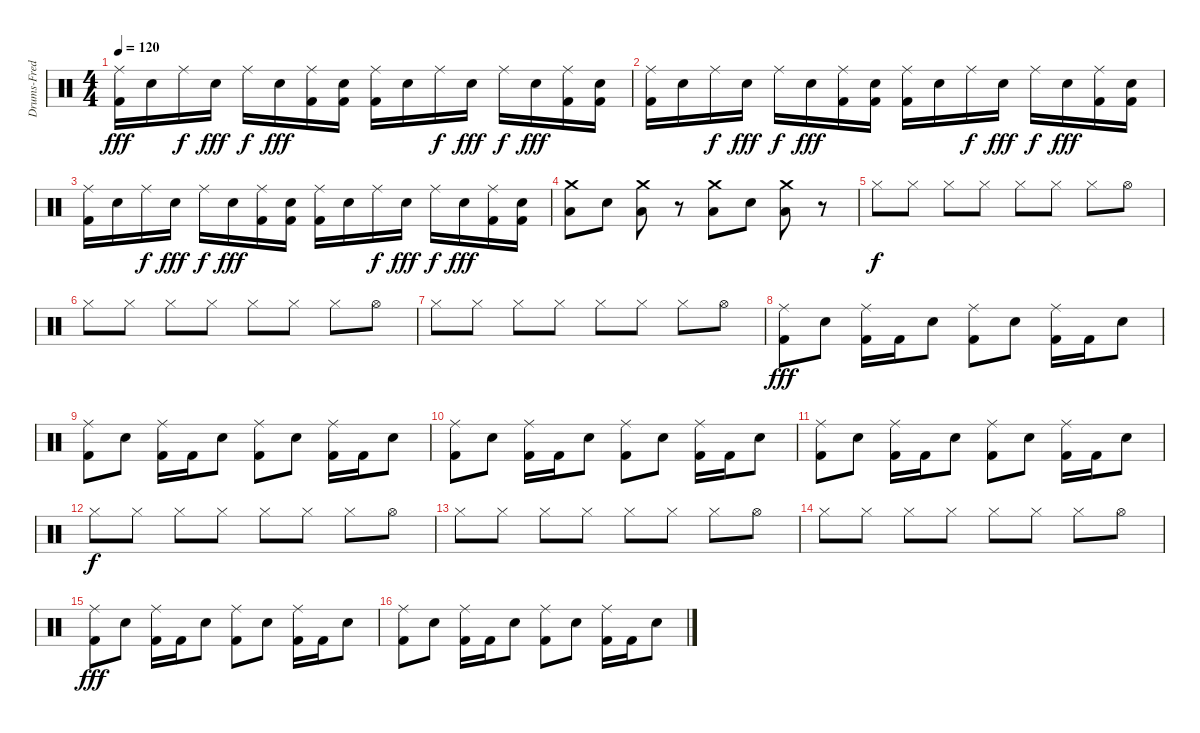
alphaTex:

\track ("Drums-Fred" "Drums-Fred") {instrument percussion}
\staff {score}
\articulation defaults
\ts (4 4)
\tempo 120
\clef neutral
\ks c
("Kick (hit) 2" "Ride (middle)").16{dy fff} "Snare (hit) 2".16 "Ride (middle)".16{dy f} "Snare (hit) 2".16{dy fff} "Ride (middle)".16{dy f} "Snare (hit) 2".16{dy fff} ("Kick (hit) 2" "Ride (middle)").16 ("Kick (hit) 2" "Snare (hit) 2").16 ("Kick (hit) 2" "Ride (middle)").16 "Snare (hit) 2".16 "Ride (middle)".16{dy f} "Snare (hit) 2".16{dy fff} "Ride (middle)".16{dy f} "Snare (hit) 2".16{dy fff} ("Kick (hit) 2" "Ride (middle)").16 ("Kick (hit) 2" "Snare (hit) 2").16 |
("Kick (hit) 2" "Ride (middle)").16 "Snare (hit) 2".16 "Ride (middle)".16{dy f} "Snare (hit) 2".16{dy fff} "Ride (middle)".16{dy f} "Snare (hit) 2".16{dy fff} ("Kick (hit) 2" "Ride (middle)").16 ("Kick (hit) 2" "Snare (hit) 2").16 ("Kick (hit) 2" "Ride (middle)").16 "Snare (hit) 2".16 "Ride (middle)".16{dy f} "Snare (hit) 2".16{dy fff} "Ride (middle)".16{dy f} "Snare (hit) 2".16{dy fff} ("Kick (hit) 2" "Ride (middle)").16 ("Kick (hit) 2" "Snare (hit) 2").16 |
("Kick (hit) 2" "Ride (middle)").16 "Snare (hit) 2".16 "Ride (middle)".16{dy f} "Snare (hit) 2".16{dy fff} "Ride (middle)".16{dy f} "Snare (hit) 2".16{dy fff} ("Kick (hit) 2" "Ride (middle)").16 ("Kick (hit) 2" "Snare (hit) 2").16 ("Kick (hit) 2" "Ride (middle)").16 "Snare (hit) 2".16 "Ride (middle)".16{dy f} "Snare (hit) 2".16{dy fff} "Ride (middle)".16{dy f} "Snare (hit) 2".16{dy fff} ("Kick (hit) 2" "Ride (middle)").16 ("Kick (hit) 2" "Snare (hit) 2").16 |
("Low Tom (hit)" "Crash medium (hit)").8 "Snare (hit) 2".8 ("Low Tom (hit)" "Crash medium (hit)").8 r.8 ("Low Tom (hit)" "Crash medium (hit)").8 "Snare (hit) 2".8 ("Low Tom (hit)" "Crash medium (hit)").8 r.8 |
"Hi-Hat (closed)".8{dy f} "Hi-Hat (closed)".8 "Hi-Hat (closed)".8 "Hi-Hat (closed)".8 "Hi-Hat (closed)".8 "Hi-Hat (closed)".8 "Hi-Hat (closed)".8 "Hi-Hat (open)".8 |
"Hi-Hat (closed)".8 "Hi-Hat (closed)".8 "Hi-Hat (closed)".8 "Hi-Hat (closed)".8 "Hi-Hat (closed)".8 "Hi-Hat (closed)".8 "Hi-Hat (closed)".8 "Hi-Hat (open)".8 |
"Hi-Hat (closed)".8 "Hi-Hat (closed)".8 "Hi-Hat (closed)".8 "Hi-Hat (closed)".8 "Hi-Hat (closed)".8 "Hi-Hat (closed)".8 "Hi-Hat (closed)".8 "Hi-Hat (open)".8 |
("Kick (hit) 2" "Ride (middle)").8{dy fff} "Snare (hit) 2".8 ("Kick (hit) 2" "Ride (middle)").16 "Kick (hit) 2".16 "Snare (hit) 2".8 ("Kick (hit) 2" "Ride (middle)").8 "Snare (hit) 2".8 ("Kick (hit) 2" "Ride (middle)").16 "Kick (hit) 2".16 "Snare (hit) 2".8 |
("Kick (hit) 2" "Ride (middle)").8 "Snare (hit) 2".8 ("Kick (hit) 2" "Ride (middle)").16 "Kick (hit) 2".16 "Snare (hit) 2".8 ("Kick (hit) 2" "Ride (middle)").8 "Snare (hit) 2".8 ("Kick (hit) 2" "Ride (middle)").16 "Kick (hit) 2".16 "Snare (hit) 2".8 |
("Kick (hit) 2" "Ride (middle)").8 "Snare (hit) 2".8 ("Kick (hit) 2" "Ride (middle)").16 "Kick (hit) 2".16 "Snare (hit) 2".8 ("Kick (hit) 2" "Ride (middle)").8 "Snare (hit) 2".8 ("Kick (hit) 2" "Ride (middle)").16 "Kick (hit) 2".16 "Snare (hit) 2".8 |
("Kick (hit) 2" "Ride (middle)").8 "Snare (hit) 2".8 ("Kick (hit) 2" "Ride (middle)").16 "Kick (hit) 2".16 "Snare (hit) 2".8 ("Kick (hit) 2" "Ride (middle)").8 "Snare (hit) 2".8 ("Kick (hit) 2" "Ride (middle)").16 "Kick (hit) 2".16 "Snare (hit) 2".8 |
"Hi-Hat (closed)".8{dy f} "Hi-Hat (closed)".8 "Hi-Hat (closed)".8 "Hi-Hat (closed)".8 "Hi-Hat (closed)".8 "Hi-Hat (closed)".8 "Hi-Hat (closed)".8 "Hi-Hat (open)".8 |
"Hi-Hat (closed)".8 "Hi-Hat (closed)".8 "Hi-Hat (closed)".8 "Hi-Hat (closed)".8 "Hi-Hat (closed)".8 "Hi-Hat (closed)".8 "Hi-Hat (closed)".8 "Hi-Hat (open)".8 |
"Hi-Hat (closed)".8 "Hi-Hat (closed)".8 "Hi-Hat (closed)".8 "Hi-Hat (closed)".8 "Hi-Hat (closed)".8 "Hi-Hat (closed)".8 "Hi-Hat (closed)".8 "Hi-Hat (open)".8 |
("Kick (hit) 2" "Ride (middle)").8{dy fff} "Snare (hit) 2".8 ("Kick (hit) 2" "Ride (middle)").16 "Kick (hit) 2".16 "Snare (hit) 2".8 ("Kick (hit) 2" "Ride (middle)").8 "Snare (hit) 2".8 ("Kick (hit) 2" "Ride (middle)").16 "Kick (hit) 2".16 "Snare (hit) 2".8 |
("Kick (hit) 2" "Ride (middle)").8 "Snare (hit) 2".8 ("Kick (hit) 2" "Ride (middle)").16 "Kick (hit) 2".16 "Snare (hit) 2".8 ("Kick (hit) 2" "Ride (middle)").8 "Snare (hit) 2".8 ("Kick (hit) 2" "Ride (middle)").16 "Kick (hit) 2".16 "Snare (hit) 2".8
